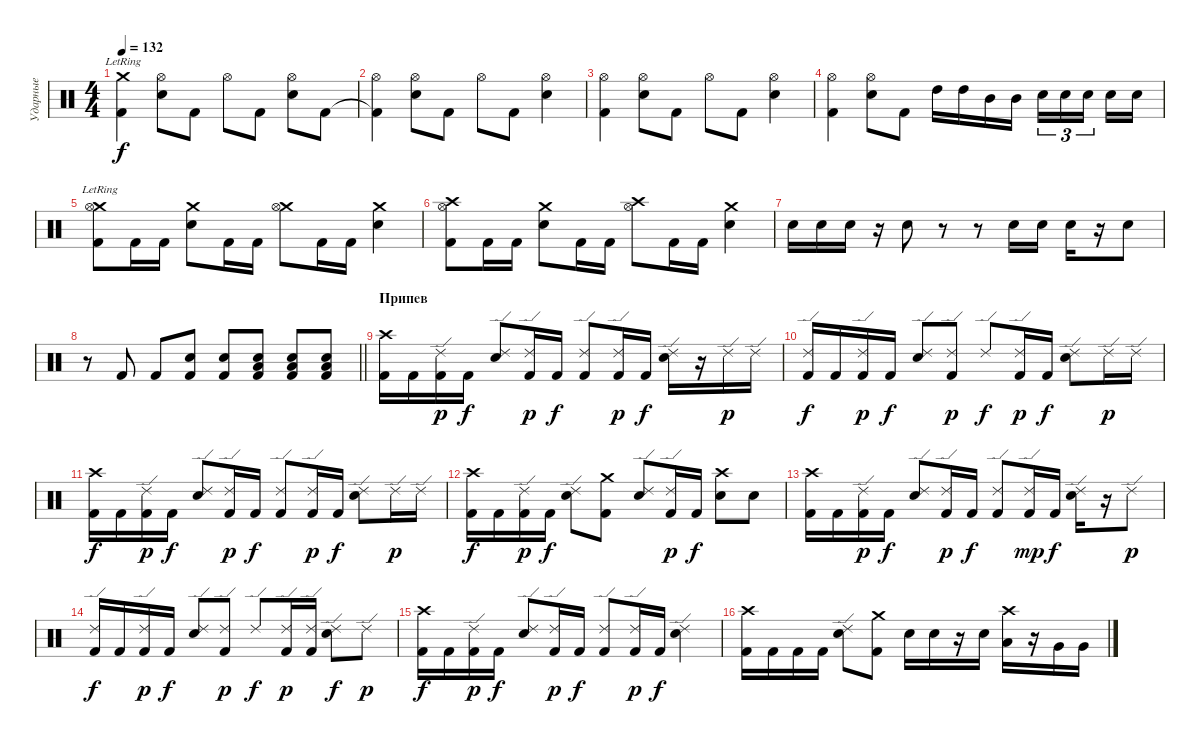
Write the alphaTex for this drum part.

\track ("Ударные" "Ударные") {instrument percussion}
\staff {score}
\articulation defaults
\ts (4 4)
\tempo 132
\clef neutral
\ks c
("Crash medium (hit)"{lr} "Kick (hit) 2").4{dy f} ("Electric Snare (hit)" "Hi-Hat (open)").8 "Kick (hit) 2".8 "Hi-Hat (open)".8 "Kick (hit) 2".8 ("Electric Snare (hit)" "Hi-Hat (open)").8 "Kick (hit) 2".8 |
("Kick (hit) 2"{t} "Hi-Hat (open)").4 ("Electric Snare (hit)" "Hi-Hat (open)").8 "Kick (hit) 2".8 "Hi-Hat (open)".8 "Kick (hit) 2".8 ("Electric Snare (hit)" "Hi-Hat (open)").4 |
("Kick (hit) 2" "Hi-Hat (open)").4 ("Electric Snare (hit)" "Hi-Hat (open)").8 "Kick (hit) 2".8 "Hi-Hat (open)".8 "Kick (hit) 2".8 ("Electric Snare (hit)" "Hi-Hat (open)").4 |
("Kick (hit) 2" "Hi-Hat (open)").4 ("Electric Snare (hit)" "Hi-Hat (open)").8 "Kick (hit) 2".8 "High Tom (hit)".16 "High Tom (hit)".16 "Mid Tom (hit)".16 "Mid Tom (hit)".16 "Electric Snare (hit)".16{tu (3 2)} "Electric Snare (hit)".16{tu (3 2)} "Electric Snare (hit)".16{tu (3 2) beam splitsecondary} "Electric Snare (hit)".16 "Electric Snare (hit)".16 |
("Crash medium (hit)"{lr} "Kick (hit) 2" "Hi-Hat (open)").8 "Kick (hit) 2".16 "Kick (hit) 2".16 ("Crash medium (hit)" "Electric Snare (hit)").8 "Kick (hit) 2".16 "Kick (hit) 2".16 ("Crash medium (hit)" "Hi-Hat (open)").8 "Kick (hit) 2".16 "Kick (hit) 2".16 ("Crash medium (hit)" "Electric Snare (hit)").4 |
("Crash high (hit)" "Kick (hit) 2" "Hi-Hat (open)").8 "Kick (hit) 2".16 "Kick (hit) 2".16 ("Crash medium (hit)" "Electric Snare (hit)").8 "Kick (hit) 2".16 "Kick (hit) 2".16 ("Crash high (hit)" "Hi-Hat (open)").8 "Kick (hit) 2".16 "Kick (hit) 2".16 ("Crash medium (hit)" "Electric Snare (hit)").4 |
"Electric Snare (hit)".16 "Electric Snare (hit)".16 "Electric Snare (hit)".16 r.16 "Electric Snare (hit)".8 r.8 r.8 "Electric Snare (hit)".16 "Electric Snare (hit)".16 "Electric Snare (hit)".16 r.16 "Electric Snare (hit)".8 |
\barLineRight lightlight
r.8 "Kick (hit) 2".8 "Kick (hit) 2".8 ("Kick (hit) 2" "Electric Snare (hit)").8 ("Kick (hit) 2" "Electric Snare (hit)").8 ("Low Tom (hit)" "Kick (hit) 2" "Electric Snare (hit)").8 ("Low Tom (hit)" "Kick (hit) 2" "Electric Snare (hit)").8 ("Low Tom (hit)" "Kick (hit) 2" "Electric Snare (hit)").8 |
\section ("" "Припев")
("Crash high (hit)" "Kick (hit) 2").16 "Kick (hit) 2".16 ("Kick (hit) 2" "Ride (edge) 2").16{dy p} "Kick (hit) 2".16{dy f} ("Electric Snare (hit)" "Ride (edge) 2").8 ("Kick (hit) 2" "Ride (edge) 2").16{dy p} "Kick (hit) 2".16{dy f} ("Kick (hit) 2" "Ride (edge) 2").8 ("Kick (hit) 2" "Ride (edge) 2").16{dy p} "Kick (hit) 2".16{dy f} ("Electric Snare (hit)" "Ride (edge) 2").16 r.16 "Ride (edge) 2".16{dy p} "Ride (edge) 2".16 |
("Kick (hit) 2" "Ride (edge) 2").16{dy f} "Kick (hit) 2".16 ("Kick (hit) 2" "Ride (edge) 2").16{dy p} "Kick (hit) 2".16{dy f} ("Electric Snare (hit)" "Ride (edge) 2").8 ("Kick (hit) 2" "Ride (edge) 2").8{dy p} "Ride (edge) 2".8{dy f} ("Kick (hit) 2" "Ride (edge) 2").16{dy p} "Kick (hit) 2".16{dy f} ("Electric Snare (hit)" "Ride (edge) 2").8 "Ride (edge) 2".16{dy p} "Ride (edge) 2".16 |
("Crash high (hit)" "Kick (hit) 2").16{dy f} "Kick (hit) 2".16 ("Kick (hit) 2" "Ride (edge) 2").16{dy p} "Kick (hit) 2".16{dy f} ("Electric Snare (hit)" "Ride (edge) 2").8 ("Kick (hit) 2" "Ride (edge) 2").16{dy p} "Kick (hit) 2".16{dy f} ("Kick (hit) 2" "Ride (edge) 2").8 ("Kick (hit) 2" "Ride (edge) 2").16{dy p} "Kick (hit) 2".16{dy f} ("Electric Snare (hit)" "Ride (edge) 2").8 "Ride (edge) 2".16{dy p} "Ride (edge) 2".16 |
("Crash high (hit)" "Kick (hit) 2").16{dy f} "Kick (hit) 2".16 ("Kick (hit) 2" "Ride (edge) 2").16{dy p} "Kick (hit) 2".16{dy f} ("Electric Snare (hit)" "Ride (edge) 2").8 ("Crash medium (hit)" "Kick (hit) 2").8 ("Electric Snare (hit)" "Ride (edge) 2").8 ("Kick (hit) 2" "Ride (edge) 2").16{dy p} "Kick (hit) 2".16{dy f} ("Crash high (hit)" "Electric Snare (hit)").8 "Electric Snare (hit)".8 |
("Crash high (hit)" "Kick (hit) 2").16 "Kick (hit) 2".16 ("Kick (hit) 2" "Ride (edge) 2").16{dy p} "Kick (hit) 2".16{dy f} ("Electric Snare (hit)" "Ride (edge) 2").8 ("Kick (hit) 2" "Ride (edge) 2").16{dy p} "Kick (hit) 2".16{dy f} ("Kick (hit) 2" "Ride (edge) 2").8 ("Kick (hit) 2" "Ride (edge) 2").16{dy mp} "Kick (hit) 2".16{dy f} ("Electric Snare (hit)" "Ride (edge) 2").16 r.16 "Ride (edge) 2".8{dy p} |
("Kick (hit) 2" "Ride (edge) 2").16{dy f} "Kick (hit) 2".16 ("Kick (hit) 2" "Ride (edge) 2").16{dy p} "Kick (hit) 2".16{dy f} ("Electric Snare (hit)" "Ride (edge) 2").8 ("Kick (hit) 2" "Ride (edge) 2").8{dy p} "Ride (edge) 2".8{dy f} ("Kick (hit) 2" "Ride (edge) 2").16{dy p} ("Kick (hit) 2" "Ride (edge) 2").16 ("Electric Snare (hit)" "Ride (edge) 2").8{dy f} "Ride (edge) 2".8{dy p} |
("Crash high (hit)" "Kick (hit) 2").16{dy f} "Kick (hit) 2".16 ("Kick (hit) 2" "Ride (edge) 2").16{dy p} "Kick (hit) 2".16{dy f} ("Electric Snare (hit)" "Ride (edge) 2").8 ("Kick (hit) 2" "Ride (edge) 2").16{dy p} "Kick (hit) 2".16{dy f} ("Kick (hit) 2" "Ride (edge) 2").8 ("Kick (hit) 2" "Ride (edge) 2").16{dy p} "Kick (hit) 2".16{dy f} ("Electric Snare (hit)" "Ride (edge) 2").4 |
("Crash high (hit)" "Kick (hit) 2").16 "Kick (hit) 2".16 "Kick (hit) 2".16 "Kick (hit) 2".16 ("Electric Snare (hit)" "Ride (edge) 2").8 ("Crash medium (hit)" "Kick (hit) 2").8 "Electric Snare (hit)".16 "Electric Snare (hit)".16 r.16 "Electric Snare (hit)".16 ("Crash high (hit)" "Low Tom (hit)").16 r.16 "Very Low Tom (hit)".16 "Very Low Tom (hit)".16
